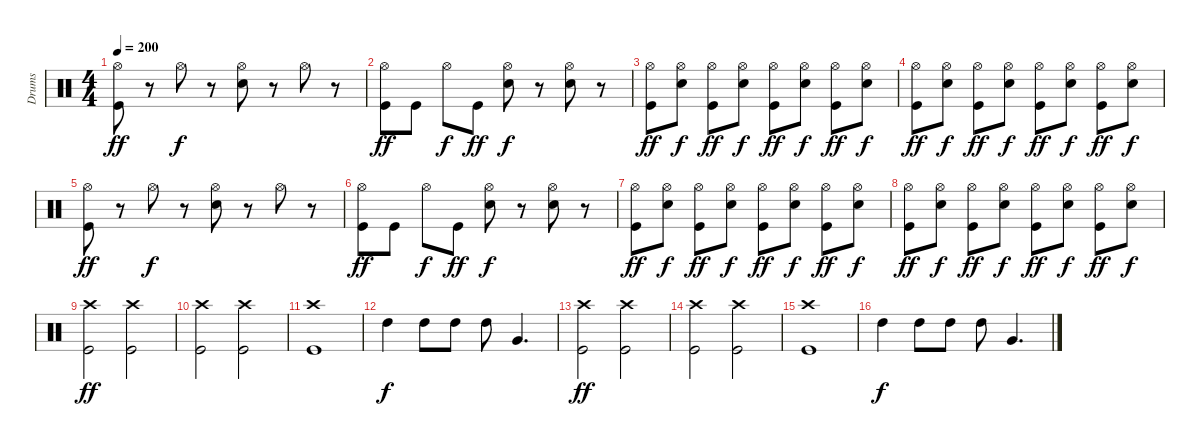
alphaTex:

\track ("Drums" "Drums") {instrument percussion}
\staff {score}
\articulation defaults
\ts (4 4)
\tempo 200
\clef neutral
\ks c
("Hi-Hat (open)" "Kick (hit)").8{dy ff} r.8 "Hi-Hat (open)".8{dy f} r.8 ("Hi-Hat (open)" "Electric Snare (hit)").8 r.8 "Hi-Hat (open)".8 r.8 |
("Hi-Hat (open)" "Kick (hit)").8{dy ff} "Kick (hit)".8 "Hi-Hat (open)".8{dy f} "Kick (hit)".8{dy ff} ("Hi-Hat (open)" "Electric Snare (hit)").8{dy f} r.8 ("Hi-Hat (open)" "Electric Snare (hit)").8 r.8 |
("Hi-Hat (open)" "Kick (hit)").8{dy ff} ("Hi-Hat (open)" "Electric Snare (hit)").8{dy f} ("Hi-Hat (open)" "Kick (hit)").8{dy ff} ("Hi-Hat (open)" "Electric Snare (hit)").8{dy f} ("Hi-Hat (open)" "Kick (hit)").8{dy ff} ("Hi-Hat (open)" "Electric Snare (hit)").8{dy f} ("Hi-Hat (open)" "Kick (hit)").8{dy ff} ("Hi-Hat (open)" "Electric Snare (hit)").8{dy f} |
("Hi-Hat (open)" "Kick (hit)").8{dy ff} ("Hi-Hat (open)" "Electric Snare (hit)").8{dy f} ("Hi-Hat (open)" "Kick (hit)").8{dy ff} ("Hi-Hat (open)" "Electric Snare (hit)").8{dy f} ("Hi-Hat (open)" "Kick (hit)").8{dy ff} ("Hi-Hat (open)" "Electric Snare (hit)").8{dy f} ("Hi-Hat (open)" "Kick (hit)").8{dy ff} ("Hi-Hat (open)" "Electric Snare (hit)").8{dy f} |
("Hi-Hat (open)" "Kick (hit)").8{dy ff} r.8 "Hi-Hat (open)".8{dy f} r.8 ("Hi-Hat (open)" "Electric Snare (hit)").8 r.8 "Hi-Hat (open)".8 r.8 |
("Hi-Hat (open)" "Kick (hit)").8{dy ff} "Kick (hit)".8 "Hi-Hat (open)".8{dy f} "Kick (hit)".8{dy ff} ("Hi-Hat (open)" "Electric Snare (hit)").8{dy f} r.8 ("Hi-Hat (open)" "Electric Snare (hit)").8 r.8 |
("Hi-Hat (open)" "Kick (hit)").8{dy ff} ("Hi-Hat (open)" "Electric Snare (hit)").8{dy f} ("Hi-Hat (open)" "Kick (hit)").8{dy ff} ("Hi-Hat (open)" "Electric Snare (hit)").8{dy f} ("Hi-Hat (open)" "Kick (hit)").8{dy ff} ("Hi-Hat (open)" "Electric Snare (hit)").8{dy f} ("Hi-Hat (open)" "Kick (hit)").8{dy ff} ("Hi-Hat (open)" "Electric Snare (hit)").8{dy f} |
("Hi-Hat (open)" "Kick (hit)").8{dy ff} ("Hi-Hat (open)" "Electric Snare (hit)").8{dy f} ("Hi-Hat (open)" "Kick (hit)").8{dy ff} ("Hi-Hat (open)" "Electric Snare (hit)").8{dy f} ("Hi-Hat (open)" "Kick (hit)").8{dy ff} ("Hi-Hat (open)" "Electric Snare (hit)").8{dy f} ("Hi-Hat (open)" "Kick (hit)").8{dy ff} ("Hi-Hat (open)" "Electric Snare (hit)").8{dy f} |
("Crash high (hit)" "Kick (hit)").2{dy ff} ("Crash high (hit)" "Kick (hit)").2 |
("Crash high (hit)" "Kick (hit)").2 ("Crash high (hit)" "Kick (hit)").2 |
("Crash high (hit)" "Kick (hit)").1 |
"High Tom (hit)".4{dy f} "High Tom (hit)".8 "High Tom (hit)".8 "High Tom (hit)".8 "Very Low Tom (hit)".4{d} |
("Crash high (hit)" "Kick (hit)").2{dy ff} ("Crash high (hit)" "Kick (hit)").2 |
("Crash high (hit)" "Kick (hit)").2 ("Crash high (hit)" "Kick (hit)").2 |
("Crash high (hit)" "Kick (hit)").1 |
"High Tom (hit)".4{dy f} "High Tom (hit)".8 "High Tom (hit)".8 "High Tom (hit)".8 "Very Low Tom (hit)".4{d}
